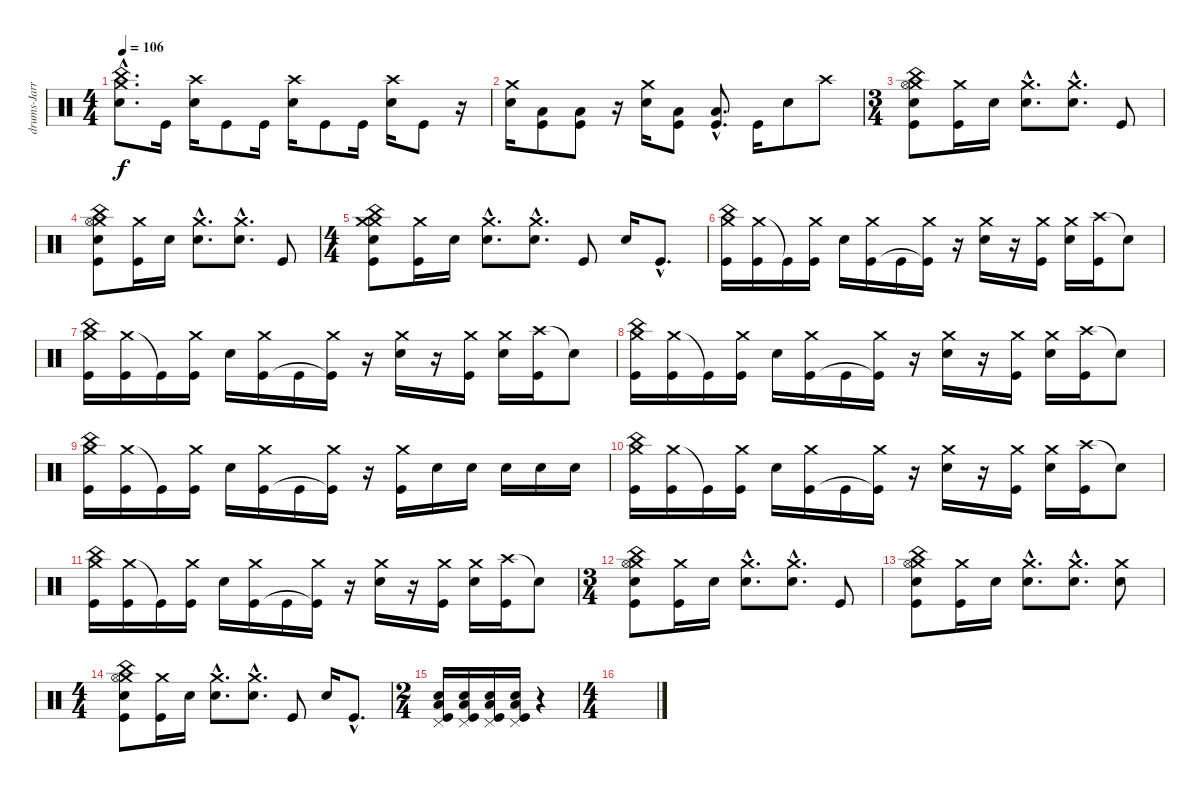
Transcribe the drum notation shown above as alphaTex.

\track ("drums-Jarrod Montague" "drums-Jarr") {instrument percussion}
\staff {score}
\articulation defaults
\ts (4 4)
\tempo 106
\clef neutral
\ks c
("China (hit)"{hac} "Crash medium (hit)"{hac} "Snare (hit) 2"{hac}).8{d dy f} "Kick (hit)".16 ("Crash high (hit)" "Snare (hit) 2").16 "Kick (hit)".8 "Kick (hit)".16 ("Crash high (hit)" "Snare (hit) 2").16 "Kick (hit)".8 "Kick (hit)".16 ("Crash high (hit)" "Snare (hit) 2").16 "Kick (hit)".8 r.16 |
("Crash medium (hit)" "Snare (hit) 2").16 ("Low Floor Tom (hit)" "Kick (hit)").8 ("Low Floor Tom (hit)" "Kick (hit)").8 r.16 ("Crash medium (hit)" "Snare (hit) 2").16 ("Low Floor Tom (hit)" "Kick (hit)").8 ("Low Floor Tom (hit)"{hac} "Kick (hit)"{hac}).8{d} "Kick (hit)".16 "Snare (hit) 2".8 "Crash high (hit)".8 |
\ts (3 4)
("Crash medium (hit)" "China (hit)" "Hi-Hat (open)" "Snare (hit) 2" "Kick (hit)").8 ("Crash medium (hit)" "Kick (hit)").16 "Snare (hit) 2".16 ("Crash medium (hit)"{hac} "Snare (hit) 2"{hac}).8{d} ("Crash medium (hit)"{hac} "Snare (hit) 2"{hac}).8{d} "Kick (hit)".8 |
("Crash medium (hit)" "China (hit)" "Hi-Hat (open)" "Snare (hit) 2" "Kick (hit)").8 ("Crash medium (hit)" "Kick (hit)").16 "Snare (hit) 2".16 ("Crash medium (hit)"{hac} "Snare (hit) 2"{hac}).8{d} ("Crash medium (hit)"{hac} "Snare (hit) 2"{hac}).8{d} "Kick (hit)".8 |
\ts (4 4)
("Crash medium (hit)" "China (hit)" "Crash medium (hit)" "Snare (hit) 2" "Kick (hit)").8 ("Crash medium (hit)" "Kick (hit)").16 "Snare (hit) 2".16 ("Crash medium (hit)"{hac} "Snare (hit) 2"{hac}).8{d} ("Crash medium (hit)"{hac} "Snare (hit) 2"{hac}).8{d} "Kick (hit)".8 "Snare (hit) 2".16 "Kick (hit)"{hac}.8{d} |
("Crash medium (hit)" "China (hit)" "Kick (hit)").16 ("Crash medium (hit)" "Kick (hit)").16 "Kick (hit)"{t}.16 ("Crash medium (hit)" "Kick (hit)").16 "Snare (hit) 2".16 ("Crash medium (hit)" "Kick (hit)").16 "Kick (hit)".16 ("Crash medium (hit)" "Kick (hit)"{t}).16 r.16 ("Crash medium (hit)" "Snare (hit) 2").16 r.16 ("Crash medium (hit)" "Kick (hit)").16 ("Crash medium (hit)" "Snare (hit) 2").16 ("Crash high (hit)" "Kick (hit)").16 "Snare (hit)"{t}.8 |
("Crash medium (hit)" "China (hit)" "Kick (hit)").16 ("Crash medium (hit)" "Kick (hit)").16 "Kick (hit)"{t}.16 ("Crash medium (hit)" "Kick (hit)").16 "Snare (hit) 2".16 ("Crash medium (hit)" "Kick (hit)").16 "Kick (hit)".16 ("Crash medium (hit)" "Kick (hit)"{t}).16 r.16 ("Crash medium (hit)" "Snare (hit) 2").16 r.16 ("Crash medium (hit)" "Kick (hit)").16 ("Crash medium (hit)" "Snare (hit) 2").16 ("Crash high (hit)" "Kick (hit)").16 "Snare (hit)"{t}.8 |
("Crash medium (hit)" "China (hit)" "Kick (hit)").16 ("Crash medium (hit)" "Kick (hit)").16 "Kick (hit)"{t}.16 ("Crash medium (hit)" "Kick (hit)").16 "Snare (hit) 2".16 ("Crash medium (hit)" "Kick (hit)").16 "Kick (hit)".16 ("Crash medium (hit)" "Kick (hit)"{t}).16 r.16 ("Crash medium (hit)" "Snare (hit) 2").16 r.16 ("Crash medium (hit)" "Kick (hit)").16 ("Crash medium (hit)" "Snare (hit) 2").16 ("Crash high (hit)" "Kick (hit)").16 "Snare (hit)"{t}.8 |
("Crash medium (hit)" "China (hit)" "Kick (hit)").16 ("Crash medium (hit)" "Kick (hit)").16 "Kick (hit)"{t}.16 ("Crash medium (hit)" "Kick (hit)").16 "Snare (hit) 2".16 ("Crash medium (hit)" "Kick (hit)").16 "Kick (hit)".16 ("Crash medium (hit)" "Kick (hit)"{t}).16 r.16 ("Crash medium (hit)" "Kick (hit)").16 "Snare (hit) 2".16 "Snare (hit) 2".16 "Snare (hit) 2".16 "Snare (hit) 2".16 "Snare (hit) 2".16 |
("Crash medium (hit)" "China (hit)" "Kick (hit)").16 ("Crash medium (hit)" "Kick (hit)").16 "Kick (hit)"{t}.16 ("Crash medium (hit)" "Kick (hit)").16 "Snare (hit) 2".16 ("Crash medium (hit)" "Kick (hit)").16 "Kick (hit)".16 ("Crash medium (hit)" "Kick (hit)"{t}).16 r.16 ("Crash medium (hit)" "Snare (hit) 2").16 r.16 ("Crash medium (hit)" "Kick (hit)").16 ("Crash medium (hit)" "Snare (hit) 2").16 ("Crash high (hit)" "Kick (hit)").16 "Snare (hit)"{t}.8 |
("Crash medium (hit)" "China (hit)" "Kick (hit)").16 ("Crash medium (hit)" "Kick (hit)").16 "Kick (hit)"{t}.16 ("Crash medium (hit)" "Kick (hit)").16 "Snare (hit) 2".16 ("Crash medium (hit)" "Kick (hit)").16 "Kick (hit)".16 ("Crash medium (hit)" "Kick (hit)"{t}).16 r.16 ("Crash medium (hit)" "Snare (hit) 2").16 r.16 ("Crash medium (hit)" "Kick (hit)").16 ("Crash medium (hit)" "Snare (hit) 2").16 ("Crash high (hit)" "Kick (hit)").16 "Snare (hit)"{t}.8 |
\ts (3 4)
("Crash medium (hit)" "China (hit)" "Hi-Hat (open)" "Snare (hit) 2" "Kick (hit)").8 ("Crash medium (hit)" "Kick (hit)").16 "Snare (hit) 2".16 ("Crash medium (hit)"{hac} "Snare (hit) 2"{hac}).8{d} ("Crash medium (hit)"{hac} "Snare (hit) 2"{hac}).8{d} "Kick (hit)".8 |
("Crash medium (hit)" "China (hit)" "Hi-Hat (open)" "Snare (hit) 2" "Kick (hit)").8 ("Crash medium (hit)" "Kick (hit)").16 "Snare (hit) 2".16 ("Crash medium (hit)"{hac} "Snare (hit) 2"{hac}).8{d} ("Crash medium (hit)"{hac} "Snare (hit) 2"{hac}).8{d} ("Crash medium (hit)" "Snare (hit) 2").8 |
\ts (4 4)
("Crash medium (hit)" "China (hit)" "Hi-Hat (open)" "Snare (hit) 2" "Kick (hit)").8 ("Crash medium (hit)" "Kick (hit)").16 "Snare (hit) 2".16 ("Crash medium (hit)"{hac} "Snare (hit) 2"{hac}).8{d} ("Crash medium (hit)"{hac} "Snare (hit) 2"{hac}).8{d} "Kick (hit)".8 "Snare (hit) 2".16 "Kick (hit)"{hac}.8{d} |
\ts (2 4)
("Pedal Hi-Hat (hit)" "Low Floor Tom (hit)" "Snare (hit) 2" "Kick (hit)").16 ("Pedal Hi-Hat (hit)" "Low Floor Tom (hit)" "Snare (hit) 2" "Kick (hit)").16 ("Pedal Hi-Hat (hit)" "Low Floor Tom (hit)" "Snare (hit) 2" "Kick (hit)").16 ("Pedal Hi-Hat (hit)" "Low Floor Tom (hit)" "Snare (hit) 2" "Kick (hit)").16 r.4 |
\ts (4 4)
